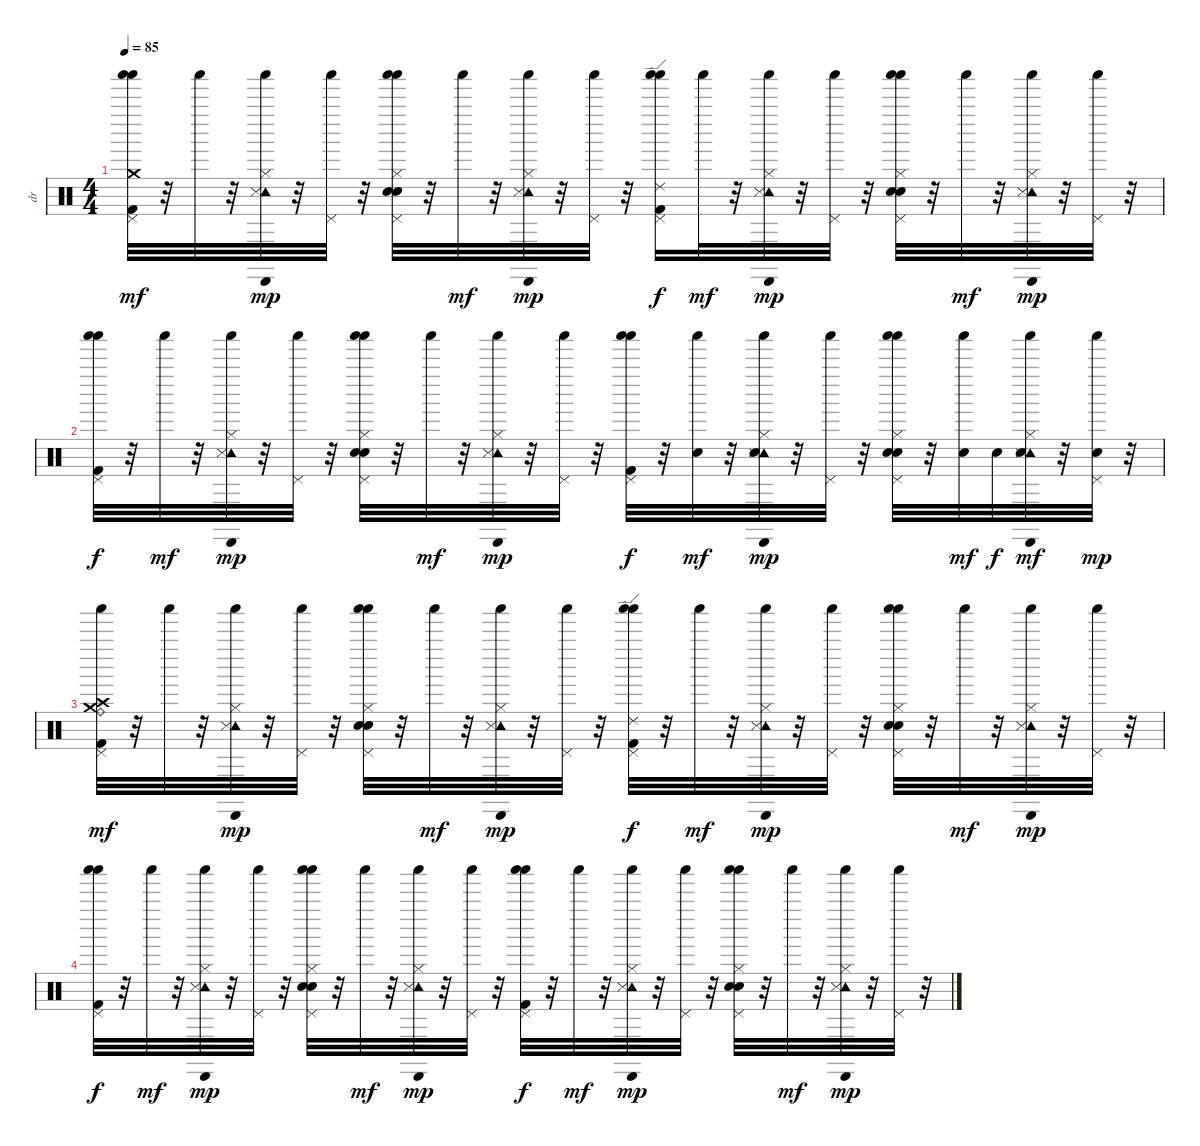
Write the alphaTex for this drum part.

\track ("dr" "dr") {instrument percussion}
\staff {score}
\articulation defaults
\ts (4 4)
\tempo 85
\clef neutral
\ks c
("Pedal Hi-Hat (hit)" "Shaker (hit)" "Shaker (hit)" "Kick (hit) 2" "Crash medium (hit)").32{dy mf volume 5} r.32 "Shaker (hit)".32{volume 5} r.32 ("Hi-Hat (closed)" "Cabasa (hit)" "Tambourine (hit)" "Shaker (hit)" "Snare (side stick) 3").32{dy mp volume 5} r.32 ("Pedal Hi-Hat (hit)" "Shaker (hit)").32{volume 5} r.32 ("Electric Snare (hit)" "Pedal Hi-Hat (hit)" "Shaker (hit)" "Shaker (hit)" "Hi-Hat (closed)" "Snare (hit) 2").32{volume 5} r.32 "Shaker (hit)".32{dy mf volume 5} r.32 ("Hi-Hat (closed)" "Tambourine (hit)" "Cabasa (hit)" "Shaker (hit)" "Snare (side stick) 3").32{dy mp volume 5} r.32 ("Pedal Hi-Hat (hit)" "Shaker (hit)").32{volume 5} r.32 ("Pedal Hi-Hat (hit)" "Shaker (hit)" "Shaker (hit)" "Kick (hit) 2" "Ride (edge) 2").16{dy f volume 5} "Shaker (hit)".32{dy mf volume 5} r.32 ("Hi-Hat (closed)" "Cabasa (hit)" "Tambourine (hit)" "Shaker (hit)" "Snare (side stick) 3").32{dy mp volume 5} r.32 ("Pedal Hi-Hat (hit)" "Shaker (hit)").32{volume 5} r.32 ("Electric Snare (hit)" "Pedal Hi-Hat (hit)" "Shaker (hit)" "Shaker (hit)" "Hi-Hat (closed)" "Snare (hit) 2").32{volume 4} r.32 "Shaker (hit)".32{dy mf volume 4} r.32 ("Hi-Hat (closed)" "Cabasa (hit)" "Tambourine (hit)" "Shaker (hit)" "Snare (side stick) 3").32{dy mp volume 4} r.32 ("Pedal Hi-Hat (hit)" "Shaker (hit)").32{volume 4} r.32 |
("Pedal Hi-Hat (hit)" "Shaker (hit)" "Shaker (hit)" "Kick (hit) 2").32{dy f volume 4} r.32 "Shaker (hit)".32{dy mf volume 4} r.32 ("Hi-Hat (closed)" "Cabasa (hit)" "Tambourine (hit)" "Shaker (hit)" "Snare (side stick) 3").32{dy mp volume 4} r.32 ("Pedal Hi-Hat (hit)" "Shaker (hit)").32{volume 4} r.32 ("Pedal Hi-Hat (hit)" "Shaker (hit)" "Shaker (hit)" "Hi-Hat (closed)" "Electric Snare (hit)" "Snare (hit) 2").32{volume 4} r.32 "Shaker (hit)".32{dy mf volume 4} r.32 ("Hi-Hat (closed)" "Cabasa (hit)" "Tambourine (hit)" "Shaker (hit)" "Snare (side stick) 3").32{dy mp volume 4} r.32 ("Pedal Hi-Hat (hit)" "Shaker (hit)").32{volume 4} r.32 ("Pedal Hi-Hat (hit)" "Shaker (hit)" "Shaker (hit)" "Kick (hit) 2").32{dy f volume 4} r.32 ("Shaker (hit)" "Snare (hit) 2").32{dy mf volume 4} r.32 ("Hi-Hat (closed)" "Cabasa (hit)" "Tambourine (hit)" "Shaker (hit)" "Snare (hit) 2" "Snare (side stick) 3").32{dy mp volume 4} r.32 ("Pedal Hi-Hat (hit)" "Shaker (hit)").32{volume 4} r.32 ("Electric Snare (hit)" "Pedal Hi-Hat (hit)" "Shaker (hit)" "Shaker (hit)" "Hi-Hat (closed)" "Snare (hit) 2").32{volume 4} r.32 ("Shaker (hit)" "Snare (hit) 2").32{dy mf volume 3} "Snare (hit) 2".32{dy f volume 3} ("Hi-Hat (closed)" "Cabasa (hit)" "Tambourine (hit)" "Shaker (hit)" "Snare (hit) 2" "Snare (side stick) 3").32{dy mf volume 3} r.32 ("Pedal Hi-Hat (hit)" "Shaker (hit)" "Snare (hit) 2").32{dy mp volume 3} r.32 |
("Kick (hit) 2" "Crash high (hit)" "Ride (bell)" "Crash medium (hit)" "Pedal Hi-Hat (hit)" "Shaker (hit)").32{dy mf volume 3} r.32 "Shaker (hit)".32{volume 3} r.32 ("Hi-Hat (closed)" "Tambourine (hit)" "Cabasa (hit)" "Shaker (hit)" "Snare (side stick) 3").32{dy mp volume 3} r.32 ("Pedal Hi-Hat (hit)" "Shaker (hit)").32{volume 3} r.32 ("Electric Snare (hit)" "Pedal Hi-Hat (hit)" "Shaker (hit)" "Shaker (hit)" "Hi-Hat (closed)" "Snare (hit) 2").32{volume 3} r.32 "Shaker (hit)".32{dy mf volume 3} r.32 ("Hi-Hat (closed)" "Tambourine (hit)" "Cabasa (hit)" "Shaker (hit)" "Snare (side stick) 3").32{dy mp volume 3} r.32 ("Pedal Hi-Hat (hit)" "Shaker (hit)").32{volume 3} r.32 ("Pedal Hi-Hat (hit)" "Shaker (hit)" "Shaker (hit)" "Kick (hit) 2" "Ride (edge) 2").32{dy f volume 3} r.32 "Shaker (hit)".32{dy mf volume 3} r.32 ("Hi-Hat (closed)" "Tambourine (hit)" "Cabasa (hit)" "Shaker (hit)" "Snare (side stick) 3").32{dy mp volume 3} r.32 ("Pedal Hi-Hat (hit)" "Shaker (hit)").32{volume 2} r.32 ("Electric Snare (hit)" "Pedal Hi-Hat (hit)" "Shaker (hit)" "Shaker (hit)" "Hi-Hat (closed)" "Snare (hit) 2").32{volume 2} r.32 "Shaker (hit)".32{dy mf volume 2} r.32 ("Hi-Hat (closed)" "Tambourine (hit)" "Cabasa (hit)" "Shaker (hit)" "Snare (side stick) 3").32{dy mp volume 2} r.32 ("Pedal Hi-Hat (hit)" "Shaker (hit)").32{volume 2} r.32 |
("Pedal Hi-Hat (hit)" "Shaker (hit)" "Shaker (hit)" "Kick (hit) 2").32{dy f volume 2} r.32 "Shaker (hit)".32{dy mf volume 2} r.32 ("Hi-Hat (closed)" "Tambourine (hit)" "Cabasa (hit)" "Shaker (hit)" "Snare (side stick) 3").32{dy mp volume 2} r.32 ("Pedal Hi-Hat (hit)" "Shaker (hit)").32{volume 2} r.32 ("Electric Snare (hit)" "Pedal Hi-Hat (hit)" "Shaker (hit)" "Shaker (hit)" "Hi-Hat (closed)" "Snare (hit) 2").32{volume 2} r.32 "Shaker (hit)".32{dy mf volume 2} r.32 ("Hi-Hat (closed)" "Tambourine (hit)" "Cabasa (hit)" "Shaker (hit)" "Snare (side stick) 3").32{dy mp volume 2} r.32 ("Pedal Hi-Hat (hit)" "Shaker (hit)").32{volume 2} r.32 ("Pedal Hi-Hat (hit)" "Shaker (hit)" "Shaker (hit)" "Kick (hit) 2").32{dy f volume 2} r.32 "Shaker (hit)".32{dy mf volume 2} r.32 ("Hi-Hat (closed)" "Tambourine (hit)" "Cabasa (hit)" "Shaker (hit)" "Snare (side stick) 3").32{dy mp volume 2} r.32 ("Pedal Hi-Hat (hit)" "Shaker (hit)").32{volume 2} r.32 ("Electric Snare (hit)" "Pedal Hi-Hat (hit)" "Shaker (hit)" "Shaker (hit)" "Hi-Hat (closed)" "Snare (hit) 2").32{volume 2} r.32 "Shaker (hit)".32{dy mf volume 2} r.32 ("Hi-Hat (closed)" "Tambourine (hit)" "Cabasa (hit)" "Shaker (hit)" "Snare (side stick) 3").32{dy mp volume 2} r.32 ("Pedal Hi-Hat (hit)" "Shaker (hit)").32{volume 2} r.32
